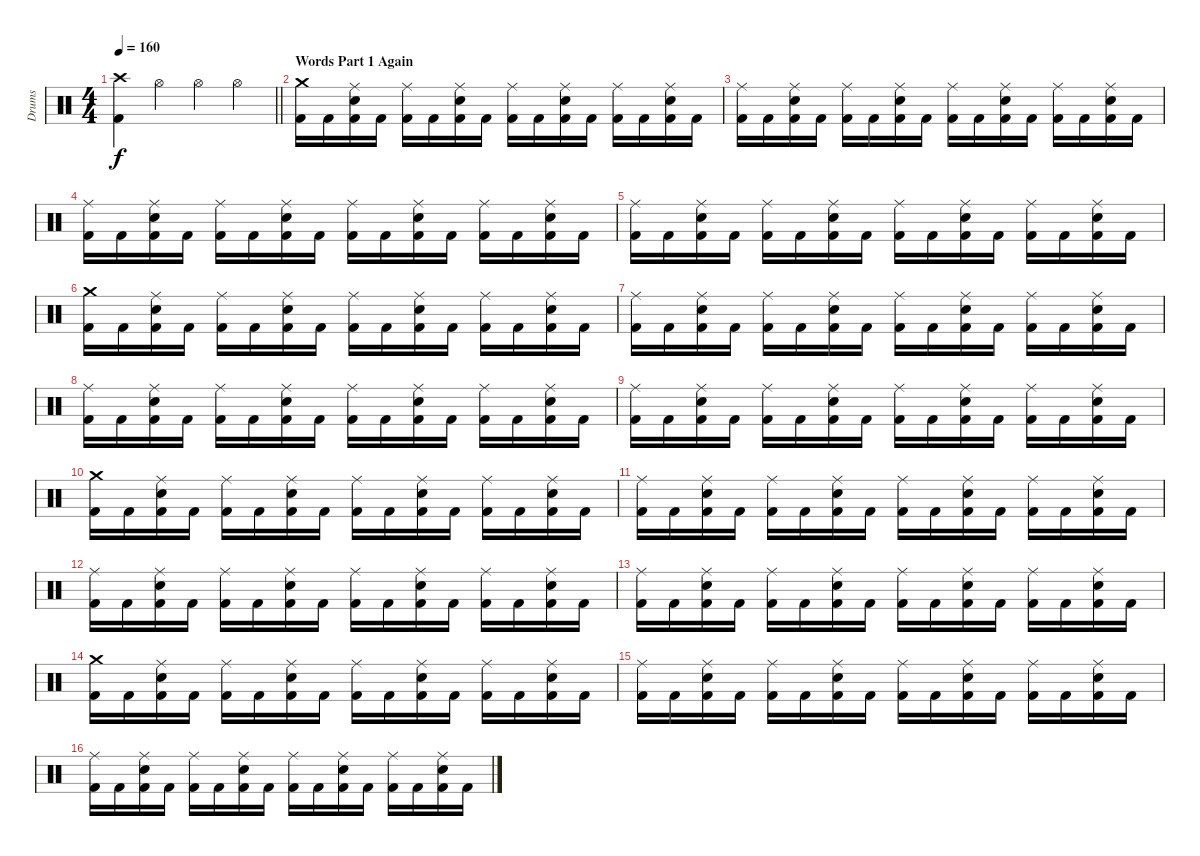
\track ("Drums" "Drums") {instrument percussion}
\staff {score}
\articulation defaults
\ts (4 4)
\tempo 160
\clef neutral
\barLineRight lightlight
\ks c
("Crash high (hit)" "Kick (hit) 2").4{dy f} "Hi-Hat (open)".4 "Hi-Hat (open)".4 "Hi-Hat (open)".4 |
\section ("" "Words Part 1 Again")
("Crash medium (hit)" "Kick (hit) 2").16 "Kick (hit) 2".16 ("Ride (middle)" "Snare (hit) 2" "Kick (hit) 2").16 "Kick (hit) 2".16 ("Ride (middle)" "Kick (hit) 2").16 "Kick (hit) 2".16 ("Ride (middle)" "Snare (hit) 2" "Kick (hit) 2").16 "Kick (hit) 2".16 ("Ride (middle)" "Kick (hit) 2").16 "Kick (hit) 2".16 ("Ride (middle)" "Snare (hit) 2" "Kick (hit) 2").16 "Kick (hit) 2".16 ("Ride (middle)" "Kick (hit) 2").16 "Kick (hit) 2".16 ("Ride (middle)" "Snare (hit) 2" "Kick (hit) 2").16 "Kick (hit) 2".16 |
("Ride (middle)" "Kick (hit) 2").16 "Kick (hit) 2".16 ("Ride (middle)" "Snare (hit) 2" "Kick (hit) 2").16 "Kick (hit) 2".16 ("Ride (middle)" "Kick (hit) 2").16 "Kick (hit) 2".16 ("Ride (middle)" "Snare (hit) 2" "Kick (hit) 2").16 "Kick (hit) 2".16 ("Ride (middle)" "Kick (hit) 2").16 "Kick (hit) 2".16 ("Ride (middle)" "Snare (hit) 2" "Kick (hit) 2").16 "Kick (hit) 2".16 ("Ride (middle)" "Kick (hit) 2").16 "Kick (hit) 2".16 ("Ride (middle)" "Snare (hit) 2" "Kick (hit) 2").16 "Kick (hit) 2".16 |
("Ride (middle)" "Kick (hit) 2").16 "Kick (hit) 2".16 ("Ride (middle)" "Snare (hit) 2" "Kick (hit) 2").16 "Kick (hit) 2".16 ("Ride (middle)" "Kick (hit) 2").16 "Kick (hit) 2".16 ("Ride (middle)" "Snare (hit) 2" "Kick (hit) 2").16 "Kick (hit) 2".16 ("Ride (middle)" "Kick (hit) 2").16 "Kick (hit) 2".16 ("Ride (middle)" "Snare (hit) 2" "Kick (hit) 2").16 "Kick (hit) 2".16 ("Ride (middle)" "Kick (hit) 2").16 "Kick (hit) 2".16 ("Ride (middle)" "Snare (hit) 2" "Kick (hit) 2").16 "Kick (hit) 2".16 |
("Ride (middle)" "Kick (hit) 2").16 "Kick (hit) 2".16 ("Ride (middle)" "Snare (hit) 2" "Kick (hit) 2").16 "Kick (hit) 2".16 ("Ride (middle)" "Kick (hit) 2").16 "Kick (hit) 2".16 ("Ride (middle)" "Snare (hit) 2" "Kick (hit) 2").16 "Kick (hit) 2".16 ("Ride (middle)" "Kick (hit) 2").16 "Kick (hit) 2".16 ("Ride (middle)" "Snare (hit) 2" "Kick (hit) 2").16 "Kick (hit) 2".16 ("Ride (middle)" "Kick (hit) 2").16 "Kick (hit) 2".16 ("Ride (middle)" "Snare (hit) 2" "Kick (hit) 2").16 "Kick (hit) 2".16 |
("Crash medium (hit)" "Kick (hit) 2").16 "Kick (hit) 2".16 ("Ride (middle)" "Snare (hit) 2" "Kick (hit) 2").16 "Kick (hit) 2".16 ("Ride (middle)" "Kick (hit) 2").16 "Kick (hit) 2".16 ("Ride (middle)" "Snare (hit) 2" "Kick (hit) 2").16 "Kick (hit) 2".16 ("Ride (middle)" "Kick (hit) 2").16 "Kick (hit) 2".16 ("Ride (middle)" "Snare (hit) 2" "Kick (hit) 2").16 "Kick (hit) 2".16 ("Ride (middle)" "Kick (hit) 2").16 "Kick (hit) 2".16 ("Ride (middle)" "Snare (hit) 2" "Kick (hit) 2").16 "Kick (hit) 2".16 |
("Ride (middle)" "Kick (hit) 2").16 "Kick (hit) 2".16 ("Ride (middle)" "Snare (hit) 2" "Kick (hit) 2").16 "Kick (hit) 2".16 ("Ride (middle)" "Kick (hit) 2").16 "Kick (hit) 2".16 ("Ride (middle)" "Snare (hit) 2" "Kick (hit) 2").16 "Kick (hit) 2".16 ("Ride (middle)" "Kick (hit) 2").16 "Kick (hit) 2".16 ("Ride (middle)" "Snare (hit) 2" "Kick (hit) 2").16 "Kick (hit) 2".16 ("Ride (middle)" "Kick (hit) 2").16 "Kick (hit) 2".16 ("Ride (middle)" "Snare (hit) 2" "Kick (hit) 2").16 "Kick (hit) 2".16 |
("Ride (middle)" "Kick (hit) 2").16 "Kick (hit) 2".16 ("Ride (middle)" "Snare (hit) 2" "Kick (hit) 2").16 "Kick (hit) 2".16 ("Ride (middle)" "Kick (hit) 2").16 "Kick (hit) 2".16 ("Ride (middle)" "Snare (hit) 2" "Kick (hit) 2").16 "Kick (hit) 2".16 ("Ride (middle)" "Kick (hit) 2").16 "Kick (hit) 2".16 ("Ride (middle)" "Snare (hit) 2" "Kick (hit) 2").16 "Kick (hit) 2".16 ("Ride (middle)" "Kick (hit) 2").16 "Kick (hit) 2".16 ("Ride (middle)" "Snare (hit) 2" "Kick (hit) 2").16 "Kick (hit) 2".16 |
("Ride (middle)" "Kick (hit) 2").16 "Kick (hit) 2".16 ("Ride (middle)" "Snare (hit) 2" "Kick (hit) 2").16 "Kick (hit) 2".16 ("Ride (middle)" "Kick (hit) 2").16 "Kick (hit) 2".16 ("Ride (middle)" "Snare (hit) 2" "Kick (hit) 2").16 "Kick (hit) 2".16 ("Ride (middle)" "Kick (hit) 2").16 "Kick (hit) 2".16 ("Ride (middle)" "Snare (hit) 2" "Kick (hit) 2").16 "Kick (hit) 2".16 ("Ride (middle)" "Kick (hit) 2").16 "Kick (hit) 2".16 ("Ride (middle)" "Snare (hit) 2" "Kick (hit) 2").16 "Kick (hit) 2".16 |
("Crash medium (hit)" "Kick (hit) 2").16 "Kick (hit) 2".16 ("Ride (middle)" "Snare (hit) 2" "Kick (hit) 2").16 "Kick (hit) 2".16 ("Ride (middle)" "Kick (hit) 2").16 "Kick (hit) 2".16 ("Ride (middle)" "Snare (hit) 2" "Kick (hit) 2").16 "Kick (hit) 2".16 ("Ride (middle)" "Kick (hit) 2").16 "Kick (hit) 2".16 ("Ride (middle)" "Snare (hit) 2" "Kick (hit) 2").16 "Kick (hit) 2".16 ("Ride (middle)" "Kick (hit) 2").16 "Kick (hit) 2".16 ("Ride (middle)" "Snare (hit) 2" "Kick (hit) 2").16 "Kick (hit) 2".16 |
("Ride (middle)" "Kick (hit) 2").16 "Kick (hit) 2".16 ("Ride (middle)" "Snare (hit) 2" "Kick (hit) 2").16 "Kick (hit) 2".16 ("Ride (middle)" "Kick (hit) 2").16 "Kick (hit) 2".16 ("Ride (middle)" "Snare (hit) 2" "Kick (hit) 2").16 "Kick (hit) 2".16 ("Ride (middle)" "Kick (hit) 2").16 "Kick (hit) 2".16 ("Ride (middle)" "Snare (hit) 2" "Kick (hit) 2").16 "Kick (hit) 2".16 ("Ride (middle)" "Kick (hit) 2").16 "Kick (hit) 2".16 ("Ride (middle)" "Snare (hit) 2" "Kick (hit) 2").16 "Kick (hit) 2".16 |
("Ride (middle)" "Kick (hit) 2").16 "Kick (hit) 2".16 ("Ride (middle)" "Snare (hit) 2" "Kick (hit) 2").16 "Kick (hit) 2".16 ("Ride (middle)" "Kick (hit) 2").16 "Kick (hit) 2".16 ("Ride (middle)" "Snare (hit) 2" "Kick (hit) 2").16 "Kick (hit) 2".16 ("Ride (middle)" "Kick (hit) 2").16 "Kick (hit) 2".16 ("Ride (middle)" "Snare (hit) 2" "Kick (hit) 2").16 "Kick (hit) 2".16 ("Ride (middle)" "Kick (hit) 2").16 "Kick (hit) 2".16 ("Ride (middle)" "Snare (hit) 2" "Kick (hit) 2").16 "Kick (hit) 2".16 |
("Ride (middle)" "Kick (hit) 2").16 "Kick (hit) 2".16 ("Ride (middle)" "Snare (hit) 2" "Kick (hit) 2").16 "Kick (hit) 2".16 ("Ride (middle)" "Kick (hit) 2").16 "Kick (hit) 2".16 ("Ride (middle)" "Snare (hit) 2" "Kick (hit) 2").16 "Kick (hit) 2".16 ("Ride (middle)" "Kick (hit) 2").16 "Kick (hit) 2".16 ("Ride (middle)" "Snare (hit) 2" "Kick (hit) 2").16 "Kick (hit) 2".16 ("Ride (middle)" "Kick (hit) 2").16 "Kick (hit) 2".16 ("Ride (middle)" "Snare (hit) 2" "Kick (hit) 2").16 "Kick (hit) 2".16 |
("Crash medium (hit)" "Kick (hit) 2").16 "Kick (hit) 2".16 ("Ride (middle)" "Snare (hit) 2" "Kick (hit) 2").16 "Kick (hit) 2".16 ("Ride (middle)" "Kick (hit) 2").16 "Kick (hit) 2".16 ("Ride (middle)" "Snare (hit) 2" "Kick (hit) 2").16 "Kick (hit) 2".16 ("Ride (middle)" "Kick (hit) 2").16 "Kick (hit) 2".16 ("Ride (middle)" "Snare (hit) 2" "Kick (hit) 2").16 "Kick (hit) 2".16 ("Ride (middle)" "Kick (hit) 2").16 "Kick (hit) 2".16 ("Ride (middle)" "Snare (hit) 2" "Kick (hit) 2").16 "Kick (hit) 2".16 |
("Ride (middle)" "Kick (hit) 2").16 "Kick (hit) 2".16 ("Ride (middle)" "Snare (hit) 2" "Kick (hit) 2").16 "Kick (hit) 2".16 ("Ride (middle)" "Kick (hit) 2").16 "Kick (hit) 2".16 ("Ride (middle)" "Snare (hit) 2" "Kick (hit) 2").16 "Kick (hit) 2".16 ("Ride (middle)" "Kick (hit) 2").16 "Kick (hit) 2".16 ("Ride (middle)" "Snare (hit) 2" "Kick (hit) 2").16 "Kick (hit) 2".16 ("Ride (middle)" "Kick (hit) 2").16 "Kick (hit) 2".16 ("Ride (middle)" "Snare (hit) 2" "Kick (hit) 2").16 "Kick (hit) 2".16 |
("Ride (middle)" "Kick (hit) 2").16 "Kick (hit) 2".16 ("Ride (middle)" "Snare (hit) 2" "Kick (hit) 2").16 "Kick (hit) 2".16 ("Ride (middle)" "Kick (hit) 2").16 "Kick (hit) 2".16 ("Ride (middle)" "Snare (hit) 2" "Kick (hit) 2").16 "Kick (hit) 2".16 ("Ride (middle)" "Kick (hit) 2").16 "Kick (hit) 2".16 ("Ride (middle)" "Snare (hit) 2" "Kick (hit) 2").16 "Kick (hit) 2".16 ("Ride (middle)" "Kick (hit) 2").16 "Kick (hit) 2".16 ("Ride (middle)" "Snare (hit) 2" "Kick (hit) 2").16 "Kick (hit) 2".16
